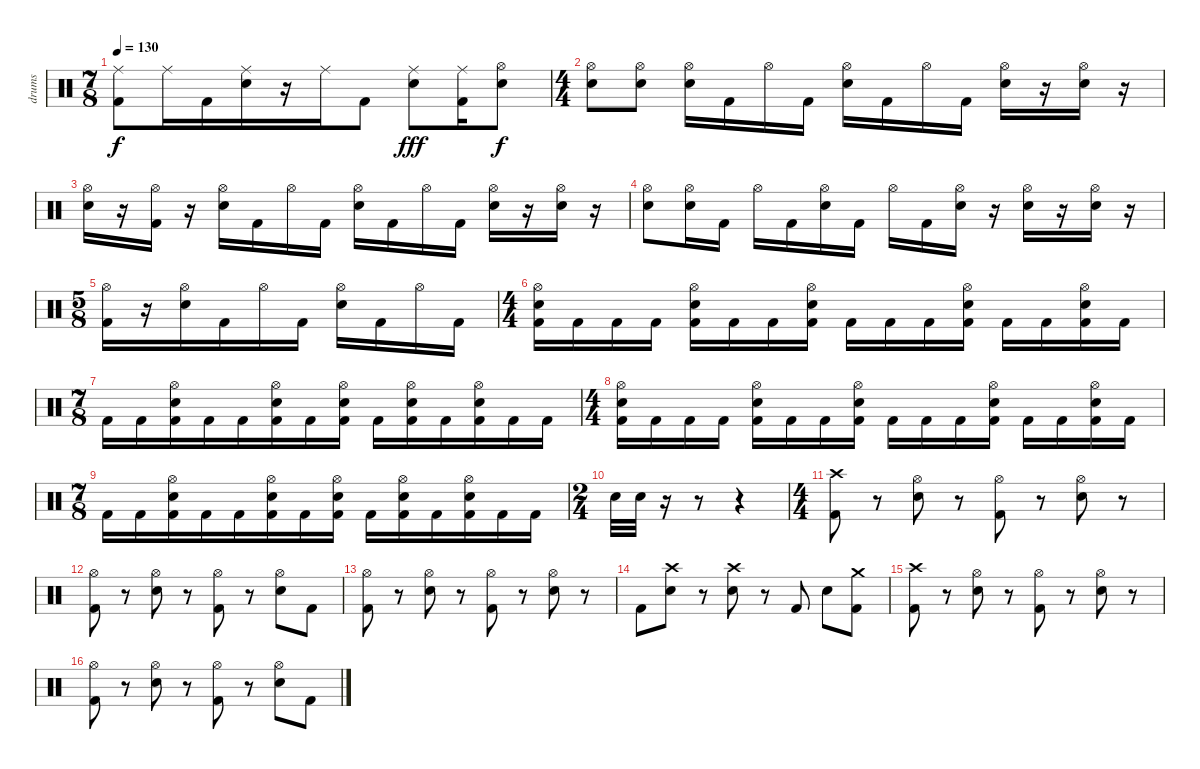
\track ("drums" "drums") {instrument percussion}
\staff {score}
\articulation defaults
\ts (7 8)
\tempo 130
\clef neutral
\ks c
("Ride (middle)" "Kick (hit) 2").8{dy f} "Ride (middle)".16 "Kick (hit) 2".16 ("Ride (middle)" "Snare (hit) 2").16 r.16 "Ride (middle)".16 "Kick (hit) 2".8 ("Ride (middle)" "Snare (hit) 2").8{dy fff} ("Ride (middle)" "Kick (hit) 2").16 ("Hi-Hat (open)" "Snare (hit) 2").8{dy f} |
\ts (4 4)
("Hi-Hat (open)" "Snare (hit) 2").8 ("Hi-Hat (open)" "Snare (hit) 2").8 ("Hi-Hat (open)" "Snare (hit) 2").16 "Kick (hit) 2".16 "Hi-Hat (open)".16 "Kick (hit) 2".16 ("Hi-Hat (open)" "Snare (hit) 2").16 "Kick (hit) 2".16 "Hi-Hat (open)".16 "Kick (hit) 2".16 ("Hi-Hat (open)" "Snare (hit) 2").16 r.16 ("Hi-Hat (open)" "Snare (hit) 2").16 r.16 |
("Hi-Hat (open)" "Snare (hit) 2").16 r.16 ("Hi-Hat (open)" "Kick (hit) 2").16 r.16 ("Hi-Hat (open)" "Snare (hit) 2").16 "Kick (hit) 2".16 "Hi-Hat (open)".16 "Kick (hit) 2".16 ("Hi-Hat (open)" "Snare (hit) 2").16 "Kick (hit) 2".16 "Hi-Hat (open)".16 "Kick (hit) 2".16 ("Hi-Hat (open)" "Snare (hit) 2").16 r.16 ("Hi-Hat (open)" "Snare (hit) 2").16 r.16 |
("Hi-Hat (open)" "Snare (hit) 2").8 ("Hi-Hat (open)" "Snare (hit) 2").16 "Kick (hit) 2".16 "Hi-Hat (open)".16 "Kick (hit) 2".16 ("Hi-Hat (open)" "Snare (hit) 2").16 "Kick (hit) 2".16 "Hi-Hat (open)".16 "Kick (hit) 2".16 ("Hi-Hat (open)" "Snare (hit) 2").16 r.16 ("Hi-Hat (open)" "Snare (hit) 2").16 r.16 ("Hi-Hat (open)" "Snare (hit) 2").16 r.16 |
\ts (5 8)
("Hi-Hat (open)" "Kick (hit) 2").16 r.16 ("Hi-Hat (open)" "Snare (hit) 2").16 "Kick (hit) 2".16 "Hi-Hat (open)".16 "Kick (hit) 2".16 ("Hi-Hat (open)" "Snare (hit) 2").16 "Kick (hit) 2".16 "Hi-Hat (open)".16 "Kick (hit) 2".16 |
\ts (4 4)
("Hi-Hat (open)" "Snare (hit) 2" "Kick (hit) 2").16 "Kick (hit) 2".16 "Kick (hit) 2".16 "Kick (hit) 2".16 ("Hi-Hat (open)" "Snare (hit) 2" "Kick (hit) 2").16 "Kick (hit) 2".16 "Kick (hit) 2".16 ("Hi-Hat (open)" "Snare (hit) 2" "Kick (hit) 2").16 "Kick (hit) 2".16 "Kick (hit) 2".16 "Kick (hit) 2".16 ("Hi-Hat (open)" "Snare (hit) 2" "Kick (hit) 2").16 "Kick (hit) 2".16 "Kick (hit) 2".16 ("Hi-Hat (open)" "Snare (hit) 2" "Kick (hit) 2").16 "Kick (hit) 2".16 |
\ts (7 8)
"Kick (hit) 2".16 "Kick (hit) 2".16 ("Hi-Hat (open)" "Snare (hit) 2" "Kick (hit) 2").16 "Kick (hit) 2".16 "Kick (hit) 2".16 ("Hi-Hat (open)" "Kick (hit) 2" "Snare (hit) 2").16 "Kick (hit) 2".16 ("Hi-Hat (open)" "Kick (hit) 2" "Snare (hit) 2").16 "Kick (hit) 2".16 ("Hi-Hat (open)" "Kick (hit) 2" "Snare (hit) 2").16 "Kick (hit) 2".16 ("Hi-Hat (open)" "Kick (hit) 2" "Snare (hit) 2").16 "Kick (hit) 2".16 "Kick (hit) 2".16 |
\ts (4 4)
("Hi-Hat (open)" "Snare (hit) 2" "Kick (hit) 2").16 "Kick (hit) 2".16 "Kick (hit) 2".16 "Kick (hit) 2".16 ("Hi-Hat (open)" "Snare (hit) 2" "Kick (hit) 2").16 "Kick (hit) 2".16 "Kick (hit) 2".16 ("Hi-Hat (open)" "Snare (hit) 2" "Kick (hit) 2").16 "Kick (hit) 2".16 "Kick (hit) 2".16 "Kick (hit) 2".16 ("Hi-Hat (open)" "Snare (hit) 2" "Kick (hit) 2").16 "Kick (hit) 2".16 "Kick (hit) 2".16 ("Hi-Hat (open)" "Snare (hit) 2" "Kick (hit) 2").16 "Kick (hit) 2".16 |
\ts (7 8)
"Kick (hit) 2".16 "Kick (hit) 2".16 ("Hi-Hat (open)" "Snare (hit) 2" "Kick (hit) 2").16 "Kick (hit) 2".16 "Kick (hit) 2".16 ("Hi-Hat (open)" "Kick (hit) 2" "Snare (hit) 2").16 "Kick (hit) 2".16 ("Hi-Hat (open)" "Kick (hit) 2" "Snare (hit) 2").16 "Kick (hit) 2".16 ("Hi-Hat (open)" "Kick (hit) 2" "Snare (hit) 2").16 "Kick (hit) 2".16 ("Hi-Hat (open)" "Kick (hit) 2" "Snare (hit) 2").16 "Kick (hit) 2".16 "Kick (hit) 2".16 |
\ts (2 4)
"Snare (hit) 2".32 "Snare (hit) 2".32 r.16 r.8 r.4 |
\ts (4 4)
("Crash high (hit)" "Kick (hit) 2").8 r.8 ("Hi-Hat (open)" "Snare (hit) 2").8 r.8 ("Hi-Hat (open)" "Kick (hit) 2").8 r.8 ("Hi-Hat (open)" "Snare (hit) 2").8 r.8 |
("Hi-Hat (open)" "Kick (hit) 2").8 r.8 ("Hi-Hat (open)" "Snare (hit) 2").8 r.8 ("Hi-Hat (open)" "Kick (hit) 2").8 r.8 ("Hi-Hat (open)" "Snare (hit) 2").8 "Kick (hit) 2".8 |
("Hi-Hat (open)" "Kick (hit) 2").8 r.8 ("Hi-Hat (open)" "Snare (hit) 2").8 r.8 ("Hi-Hat (open)" "Kick (hit) 2").8 r.8 ("Hi-Hat (open)" "Snare (hit) 2").8 r.8 |
"Kick (hit) 2".8 ("Crash high (hit)" "Snare (hit) 2").8 r.8 ("Crash high (hit)" "Snare (hit) 2").8 r.8 "Kick (hit) 2".8 "Snare (hit) 2".8 ("Crash medium (hit)" "Kick (hit) 2").8 |
("Crash high (hit)" "Kick (hit) 2").8 r.8 ("Hi-Hat (open)" "Snare (hit) 2").8 r.8 ("Hi-Hat (open)" "Kick (hit) 2").8 r.8 ("Hi-Hat (open)" "Snare (hit) 2").8 r.8 |
("Hi-Hat (open)" "Kick (hit) 2").8 r.8 ("Hi-Hat (open)" "Snare (hit) 2").8 r.8 ("Hi-Hat (open)" "Kick (hit) 2").8 r.8 ("Hi-Hat (open)" "Snare (hit) 2").8 "Kick (hit) 2".8
